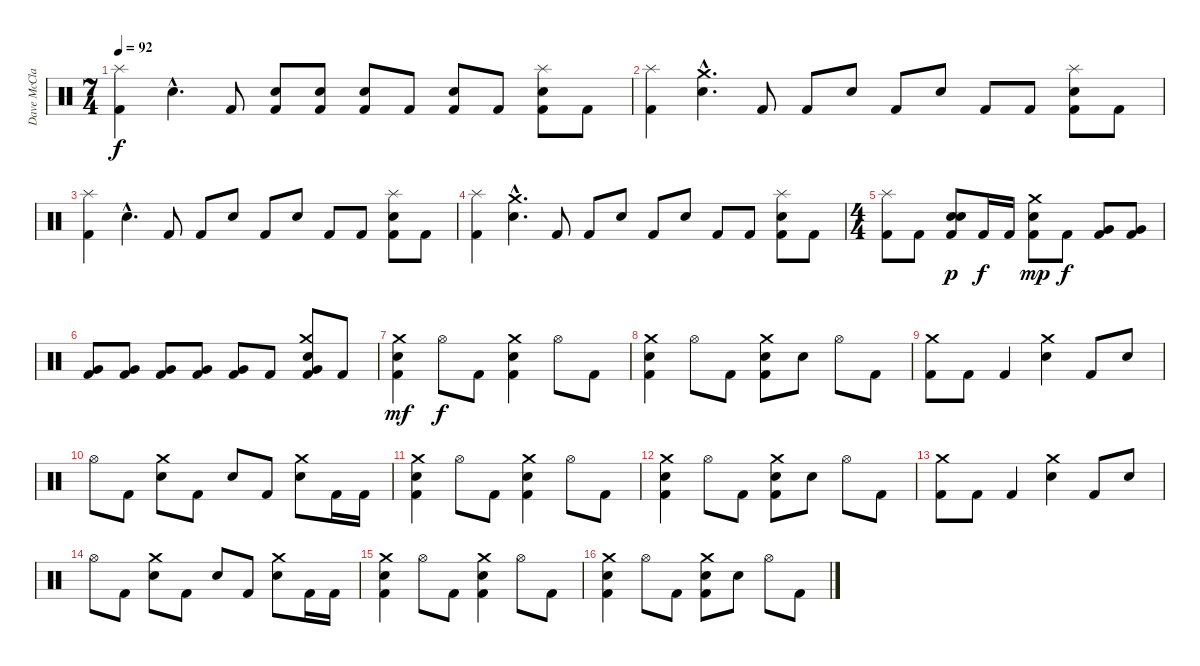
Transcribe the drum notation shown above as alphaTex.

\track ("Dave McClain" "Dave McCla") {instrument percussion}
\staff {score}
\articulation defaults
\ts (7 4)
\tempo 92
\clef neutral
\ks c
("Splash (hit)" "Kick (hit) 2").4{dy f} "Snare (hit) 2"{hac}.4{d} "Kick (hit) 2".8 ("Electric Snare (hit)" "Kick (hit) 2").8 ("Electric Snare (hit)" "Kick (hit) 2").8 ("Electric Snare (hit)" "Kick (hit) 2").8 "Kick (hit) 2".8 ("Electric Snare (hit)" "Kick (hit) 2").8 "Kick (hit) 2".8 ("Splash (hit)" "Electric Snare (hit)" "Kick (hit) 2").8 "Kick (hit) 2".8 |
("Splash (hit)" "Kick (hit) 2").4 ("Crash medium (hit)"{hac} "Snare (hit) 2"{hac}).4{d} "Kick (hit) 2".8 "Kick (hit) 2".8 "Electric Snare (hit)".8 "Kick (hit) 2".8 "Electric Snare (hit)".8 "Kick (hit) 2".8 "Kick (hit) 2".8 ("Splash (hit)" "Electric Snare (hit)" "Kick (hit) 2").8 "Kick (hit) 2".8 |
("Splash (hit)" "Kick (hit) 2").4 "Snare (hit) 2"{hac}.4{d} "Kick (hit) 2".8 "Kick (hit) 2".8 "Electric Snare (hit)".8 "Kick (hit) 2".8 "Electric Snare (hit)".8 "Kick (hit) 2".8 "Kick (hit) 2".8 ("Splash (hit)" "Electric Snare (hit)" "Kick (hit) 2").8 "Kick (hit) 2".8 |
("Splash (hit)" "Kick (hit) 2").4 ("Crash medium (hit)"{hac} "Snare (hit) 2"{hac}).4{d} "Kick (hit) 2".8 "Kick (hit) 2".8 "Electric Snare (hit)".8 "Kick (hit) 2".8 "Electric Snare (hit)".8 "Kick (hit) 2".8 "Kick (hit) 2".8 ("Splash (hit)" "Electric Snare (hit)" "Kick (hit) 2").8 "Kick (hit) 2".8 |
\ts (4 4)
("Splash (hit)" "Kick (hit) 2").8{volume 13} "Kick (hit) 2".8 ("Electric Snare (hit)" "Snare (hit) 2" "Kick (hit) 2").8{dy p} "Kick (hit) 2".16{dy f} "Kick (hit) 2".16 ("Crash medium (hit)" "Electric Snare (hit)" "Kick (hit) 2").8{dy mp} "Kick (hit) 2".8{dy f} ("Very Low Tom (hit)" "Kick (hit) 2").8 ("Very Low Tom (hit)" "Kick (hit) 2").8 |
("Very Low Tom (hit)" "Kick (hit) 2").8 ("Very Low Tom (hit)" "Kick (hit) 2").8 ("Very Low Tom (hit)" "Kick (hit) 2").8 ("Very Low Tom (hit)" "Kick (hit) 2").8 ("Very Low Tom (hit)" "Kick (hit) 2").8 "Kick (hit) 2".8 ("Crash medium (hit)" "Very Low Tom (hit)" "Electric Snare (hit)" "Kick (hit) 2").8 "Kick (hit) 2".8 |
("Crash medium (hit)" "Electric Snare (hit)" "Kick (hit) 2").4{dy mf volume 16} "Hi-Hat (open)".8{dy f} "Kick (hit) 2".8 ("Crash medium (hit)" "Electric Snare (hit)" "Kick (hit) 2").4 "Hi-Hat (open)".8 "Kick (hit) 2".8 |
("Crash medium (hit)" "Electric Snare (hit)" "Kick (hit) 2").4 "Hi-Hat (open)".8 "Kick (hit) 2".8 ("Crash medium (hit)" "Electric Snare (hit)" "Kick (hit) 2").8 "Electric Snare (hit)".8 "Hi-Hat (open)".8 "Kick (hit) 2".8 |
("Crash medium (hit)" "Kick (hit) 2").8 "Kick (hit) 2".8 "Kick (hit) 2".4 ("Crash medium (hit)" "Electric Snare (hit)").4 "Kick (hit) 2".8 "Electric Snare (hit)".8 |
"Hi-Hat (open)".8 "Kick (hit) 2".8 ("Crash medium (hit)" "Electric Snare (hit)").8 "Kick (hit) 2".8 "Electric Snare (hit)".8 "Kick (hit) 2".8 ("Crash medium (hit)" "Electric Snare (hit)").8 "Kick (hit) 2".16 "Kick (hit) 2".16 |
("Crash medium (hit)" "Electric Snare (hit)" "Kick (hit) 2").4 "Hi-Hat (open)".8 "Kick (hit) 2".8 ("Crash medium (hit)" "Electric Snare (hit)" "Kick (hit) 2").4 "Hi-Hat (open)".8 "Kick (hit) 2".8 |
("Crash medium (hit)" "Electric Snare (hit)" "Kick (hit) 2").4 "Hi-Hat (open)".8 "Kick (hit) 2".8 ("Crash medium (hit)" "Electric Snare (hit)" "Kick (hit) 2").8 "Electric Snare (hit)".8 "Hi-Hat (open)".8 "Kick (hit) 2".8 |
("Crash medium (hit)" "Kick (hit) 2").8 "Kick (hit) 2".8 "Kick (hit) 2".4 ("Crash medium (hit)" "Electric Snare (hit)").4 "Kick (hit) 2".8 "Electric Snare (hit)".8 |
"Hi-Hat (open)".8 "Kick (hit) 2".8 ("Crash medium (hit)" "Electric Snare (hit)").8 "Kick (hit) 2".8 "Electric Snare (hit)".8 "Kick (hit) 2".8 ("Crash medium (hit)" "Electric Snare (hit)").8 "Kick (hit) 2".16 "Kick (hit) 2".16 |
("Crash medium (hit)" "Electric Snare (hit)" "Kick (hit) 2").4 "Hi-Hat (open)".8 "Kick (hit) 2".8 ("Crash medium (hit)" "Electric Snare (hit)" "Kick (hit) 2").4 "Hi-Hat (open)".8 "Kick (hit) 2".8 |
("Crash medium (hit)" "Electric Snare (hit)" "Kick (hit) 2").4 "Hi-Hat (open)".8 "Kick (hit) 2".8 ("Crash medium (hit)" "Electric Snare (hit)" "Kick (hit) 2").8 "Electric Snare (hit)".8 "Hi-Hat (open)".8 "Kick (hit) 2".8
